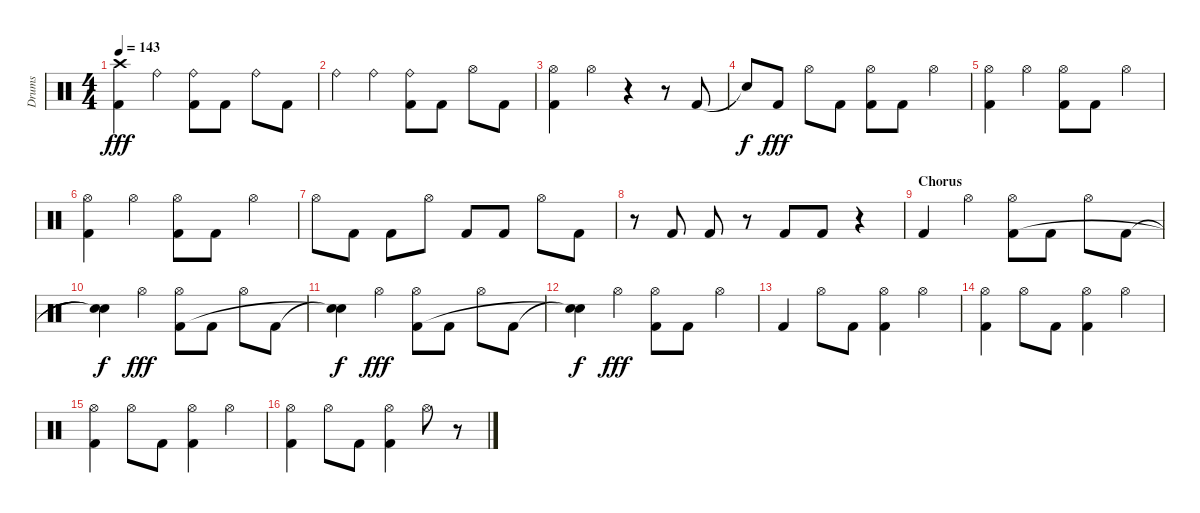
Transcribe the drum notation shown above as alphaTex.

\track ("Drums" "Drums") {instrument percussion}
\staff {score}
\articulation defaults
\ts (4 4)
\tempo 143
\clef neutral
\ks c
("Crash high (hit)" "Kick (hit) 2").4{dy fff} "Ride (bell)".4 ("Ride (bell)" "Kick (hit) 2").8 "Kick (hit) 2".8 "Ride (bell)".8 "Kick (hit) 2".8 |
"Ride (bell)".4 "Ride (bell)".4 ("Ride (bell)" "Kick (hit) 2").8 "Kick (hit) 2".8 "Hi-Hat (open)".8 "Kick (hit) 2".8 |
("Hi-Hat (open)" "Kick (hit) 2").4 "Hi-Hat (open)".4 r.4 r.8 "Kick (hit) 2".8 |
"Snare (hit)"{t}.8{dy f} "Kick (hit) 2".8{dy fff} "Hi-Hat (open)".8 "Kick (hit) 2".8 ("Hi-Hat (open)" "Kick (hit) 2").8 "Kick (hit) 2".8 "Hi-Hat (open)".4 |
("Hi-Hat (open)" "Kick (hit) 2").4 "Hi-Hat (open)".4 ("Hi-Hat (open)" "Kick (hit) 2").8 "Kick (hit) 2".8 "Hi-Hat (open)".4 |
("Hi-Hat (open)" "Kick (hit) 2").4 "Hi-Hat (open)".4 ("Hi-Hat (open)" "Kick (hit) 2").8 "Kick (hit) 2".8 "Hi-Hat (open)".4 |
"Hi-Hat (open)".8 "Kick (hit) 2".8 "Kick (hit) 2".8 "Hi-Hat (open)".8 "Kick (hit) 2".8 "Kick (hit) 2".8 "Hi-Hat (open)".8 "Kick (hit) 2".8 |
r.8 "Kick (hit) 2".8 "Kick (hit) 2".8 r.8 "Kick (hit) 2".8 "Kick (hit) 2".8 r.4 |
\section ("" "Chorus")
"Kick (hit) 2".4 "Hi-Hat (open)".4 ("Hi-Hat (open)" "Kick (hit) 2").8 "Kick (hit) 2".8 "Hi-Hat (open)".8 "Kick (hit) 2".8 |
("Snare (hit)"{t} "Snare (hit)"{t}).4{dy f} "Hi-Hat (open)".4{dy fff} ("Hi-Hat (open)" "Kick (hit) 2").8 "Kick (hit) 2".8 "Hi-Hat (open)".8 "Kick (hit) 2".8 |
("Snare (hit)"{t} "Snare (hit)"{t}).4{dy f} "Hi-Hat (open)".4{dy fff} ("Hi-Hat (open)" "Kick (hit) 2").8 "Kick (hit) 2".8 "Hi-Hat (open)".8 "Kick (hit) 2".8 |
("Snare (hit)"{t} "Snare (hit)"{t}).4{dy f} "Hi-Hat (open)".4{dy fff} ("Hi-Hat (open)" "Kick (hit) 2").8 "Kick (hit) 2".8 "Hi-Hat (open)".4 |
"Kick (hit) 2".4 "Hi-Hat (open)".8 "Kick (hit) 2".8 ("Hi-Hat (open)" "Kick (hit) 2").4 "Hi-Hat (open)".4 |
("Hi-Hat (open)" "Kick (hit) 2").4 "Hi-Hat (open)".8 "Kick (hit) 2".8 ("Hi-Hat (open)" "Kick (hit) 2").4 "Hi-Hat (open)".4 |
("Hi-Hat (open)" "Kick (hit) 2").4 "Hi-Hat (open)".8 "Kick (hit) 2".8 ("Hi-Hat (open)" "Kick (hit) 2").4 "Hi-Hat (open)".4 |
("Hi-Hat (open)" "Kick (hit) 2").4 "Hi-Hat (open)".8 "Kick (hit) 2".8 ("Hi-Hat (open)" "Kick (hit) 2").4 "Hi-Hat (open)".8 r.8
